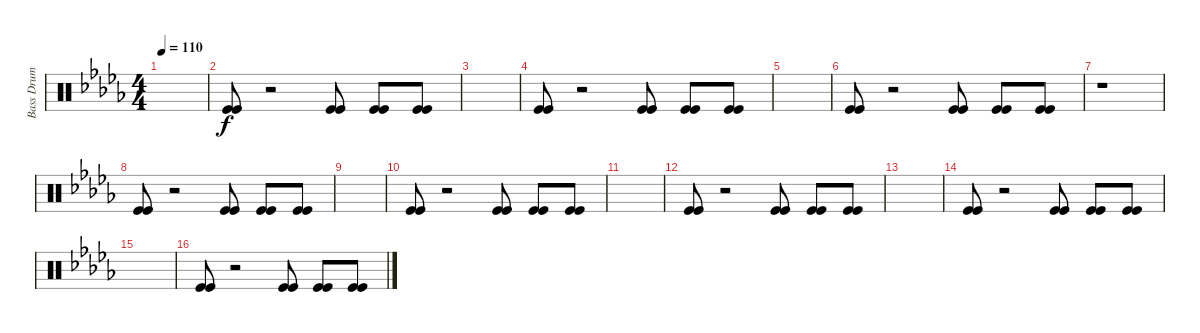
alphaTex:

\track ("Bass Drum" "Bass Drum") {instrument percussion}
\staff {score}
\articulation defaults
\ts (4 4)
\tempo 110
\clef neutral
\ks db
|
("Kick (hit)" "Kick (hit)").8 r.2 ("Kick (hit)" "Kick (hit)").8 ("Kick (hit)" "Kick (hit)").8 ("Kick (hit)" "Kick (hit)").8 |
|
("Kick (hit)" "Kick (hit)").8 r.2 ("Kick (hit)" "Kick (hit)").8 ("Kick (hit)" "Kick (hit)").8 ("Kick (hit)" "Kick (hit)").8 |
|
("Kick (hit)" "Kick (hit)").8 r.2 ("Kick (hit)" "Kick (hit)").8 ("Kick (hit)" "Kick (hit)").8 ("Kick (hit)" "Kick (hit)").8 |
r.1 |
("Kick (hit)" "Kick (hit)").8 r.2 ("Kick (hit)" "Kick (hit)").8 ("Kick (hit)" "Kick (hit)").8 ("Kick (hit)" "Kick (hit)").8 |
|
("Kick (hit)" "Kick (hit)").8 r.2 ("Kick (hit)" "Kick (hit)").8 ("Kick (hit)" "Kick (hit)").8 ("Kick (hit)" "Kick (hit)").8 |
|
("Kick (hit)" "Kick (hit)").8 r.2 ("Kick (hit)" "Kick (hit)").8 ("Kick (hit)" "Kick (hit)").8 ("Kick (hit)" "Kick (hit)").8 |
|
("Kick (hit)" "Kick (hit)").8 r.2 ("Kick (hit)" "Kick (hit)").8 ("Kick (hit)" "Kick (hit)").8 ("Kick (hit)" "Kick (hit)").8 |
|
("Kick (hit)" "Kick (hit)").8 r.2 ("Kick (hit)" "Kick (hit)").8 ("Kick (hit)" "Kick (hit)").8 ("Kick (hit)" "Kick (hit)").8
